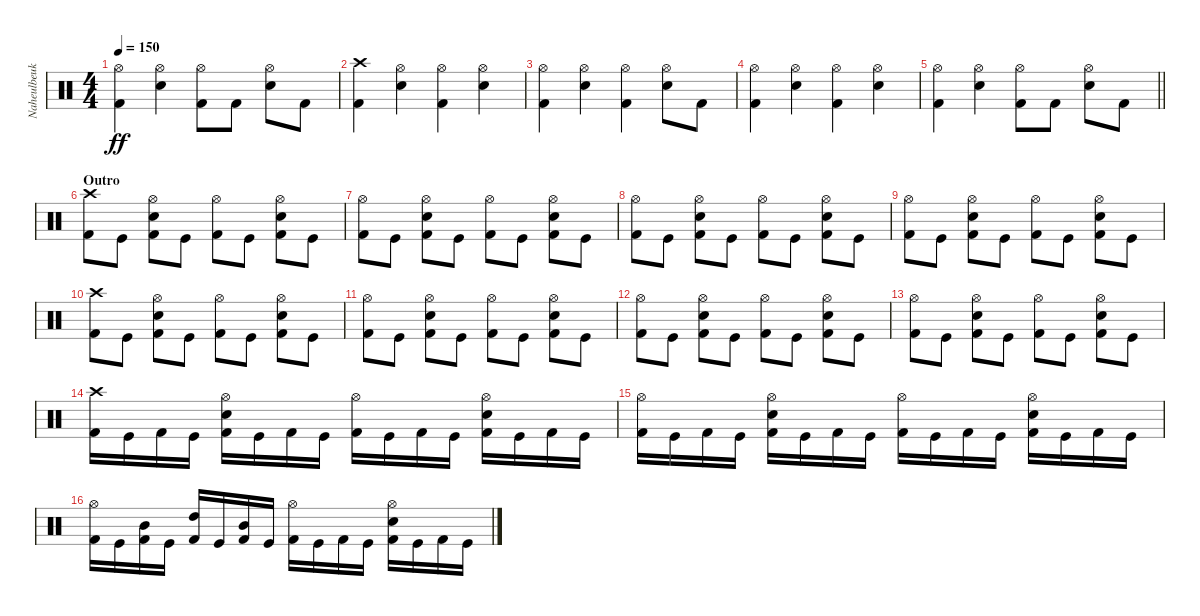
\track ("Naheulbeuk" "Naheulbeuk") {instrument percussion}
\staff {score}
\articulation defaults
\ts (4 4)
\tempo 150
\clef neutral
\ks c
("Hi-Hat (open)" "Kick (hit) 2").4{dy ff} ("Hi-Hat (open)" "Snare (hit) 2").4 ("Hi-Hat (open)" "Kick (hit) 2").8 "Kick (hit) 2".8 ("Hi-Hat (open)" "Snare (hit) 2").8 "Kick (hit) 2".8 |
("Crash high (hit)" "Kick (hit) 2").4 ("Hi-Hat (open)" "Snare (hit) 2").4 ("Hi-Hat (open)" "Kick (hit) 2").4 ("Hi-Hat (open)" "Snare (hit) 2").4 |
("Hi-Hat (open)" "Kick (hit) 2").4 ("Hi-Hat (open)" "Snare (hit) 2").4 ("Hi-Hat (open)" "Kick (hit) 2").4 ("Hi-Hat (open)" "Snare (hit) 2").8 "Kick (hit) 2".8 |
("Hi-Hat (open)" "Kick (hit) 2").4 ("Hi-Hat (open)" "Snare (hit) 2").4 ("Hi-Hat (open)" "Kick (hit) 2").4 ("Hi-Hat (open)" "Snare (hit) 2").4 |
\barLineRight lightlight
("Hi-Hat (open)" "Kick (hit) 2").4 ("Hi-Hat (open)" "Snare (hit) 2").4 ("Hi-Hat (open)" "Kick (hit) 2").8 "Kick (hit) 2".8 ("Hi-Hat (open)" "Snare (hit) 2").8 "Kick (hit) 2".8 |
\section ("" "Outro")
("Crash high (hit)" "Kick (hit) 2").8 "Kick (hit)".8 ("Hi-Hat (open)" "Snare (hit) 2" "Kick (hit) 2").8 "Kick (hit)".8 ("Hi-Hat (open)" "Kick (hit) 2").8 "Kick (hit)".8 ("Hi-Hat (open)" "Snare (hit) 2" "Kick (hit) 2").8 "Kick (hit)".8 |
("Hi-Hat (open)" "Kick (hit) 2").8 "Kick (hit)".8 ("Hi-Hat (open)" "Snare (hit) 2" "Kick (hit) 2").8 "Kick (hit)".8 ("Hi-Hat (open)" "Kick (hit) 2").8 "Kick (hit)".8 ("Hi-Hat (open)" "Snare (hit) 2" "Kick (hit) 2").8 "Kick (hit)".8 |
("Hi-Hat (open)" "Kick (hit) 2").8 "Kick (hit)".8 ("Hi-Hat (open)" "Snare (hit) 2" "Kick (hit) 2").8 "Kick (hit)".8 ("Hi-Hat (open)" "Kick (hit) 2").8 "Kick (hit)".8 ("Hi-Hat (open)" "Snare (hit) 2" "Kick (hit) 2").8 "Kick (hit)".8 |
("Hi-Hat (open)" "Kick (hit) 2").8 "Kick (hit)".8 ("Hi-Hat (open)" "Snare (hit) 2" "Kick (hit) 2").8 "Kick (hit)".8 ("Hi-Hat (open)" "Kick (hit) 2").8 "Kick (hit)".8 ("Hi-Hat (open)" "Snare (hit) 2" "Kick (hit) 2").8 "Kick (hit)".8 |
("Crash high (hit)" "Kick (hit) 2").8 "Kick (hit)".8 ("Hi-Hat (open)" "Snare (hit) 2" "Kick (hit) 2").8 "Kick (hit)".8 ("Hi-Hat (open)" "Kick (hit) 2").8 "Kick (hit)".8 ("Hi-Hat (open)" "Snare (hit) 2" "Kick (hit) 2").8 "Kick (hit)".8 |
("Hi-Hat (open)" "Kick (hit) 2").8 "Kick (hit)".8 ("Hi-Hat (open)" "Snare (hit) 2" "Kick (hit) 2").8 "Kick (hit)".8 ("Hi-Hat (open)" "Kick (hit) 2").8 "Kick (hit)".8 ("Hi-Hat (open)" "Snare (hit) 2" "Kick (hit) 2").8 "Kick (hit)".8 |
("Hi-Hat (open)" "Kick (hit) 2").8 "Kick (hit)".8 ("Hi-Hat (open)" "Snare (hit) 2" "Kick (hit) 2").8 "Kick (hit)".8 ("Hi-Hat (open)" "Kick (hit) 2").8 "Kick (hit)".8 ("Hi-Hat (open)" "Snare (hit) 2" "Kick (hit) 2").8 "Kick (hit)".8 |
("Hi-Hat (open)" "Kick (hit) 2").8 "Kick (hit)".8 ("Hi-Hat (open)" "Snare (hit) 2" "Kick (hit) 2").8 "Kick (hit)".8 ("Hi-Hat (open)" "Kick (hit) 2").8 "Kick (hit)".8 ("Hi-Hat (open)" "Snare (hit) 2" "Kick (hit) 2").8 "Kick (hit)".8 |
("Crash high (hit)" "Kick (hit) 2").16 "Kick (hit)".16 "Kick (hit) 2".16 "Kick (hit)".16 ("Hi-Hat (open)" "Snare (hit) 2" "Kick (hit) 2").16 "Kick (hit)".16 "Kick (hit) 2".16 "Kick (hit)".16 ("Hi-Hat (open)" "Kick (hit) 2").16 "Kick (hit)".16 "Kick (hit) 2".16 "Kick (hit)".16 ("Hi-Hat (open)" "Snare (hit) 2" "Kick (hit) 2").16 "Kick (hit)".16 "Kick (hit) 2".16 "Kick (hit)".16 |
("Hi-Hat (open)" "Kick (hit) 2").16 "Kick (hit)".16 "Kick (hit) 2".16 "Kick (hit)".16 ("Hi-Hat (open)" "Snare (hit) 2" "Kick (hit) 2").16 "Kick (hit)".16 "Kick (hit) 2".16 "Kick (hit)".16 ("Hi-Hat (open)" "Kick (hit) 2").16 "Kick (hit)".16 "Kick (hit) 2".16 "Kick (hit)".16 ("Hi-Hat (open)" "Snare (hit) 2" "Kick (hit) 2").16 "Kick (hit)".16 "Kick (hit) 2".16 "Kick (hit)".16 |
("Hi-Hat (open)" "Kick (hit) 2").16 "Kick (hit)".16 ("Mid Tom (hit)" "Kick (hit) 2").16 "Kick (hit)".16 ("High Tom (hit)" "Kick (hit) 2").16 "Kick (hit)".16 ("Mid Tom (hit)" "Kick (hit) 2").16 "Kick (hit)".16 ("Hi-Hat (open)" "Kick (hit) 2").16 "Kick (hit)".16 "Kick (hit) 2".16 "Kick (hit)".16 ("Hi-Hat (open)" "Snare (hit) 2" "Kick (hit) 2").16 "Kick (hit)".16 "Kick (hit) 2".16 "Kick (hit)".16
